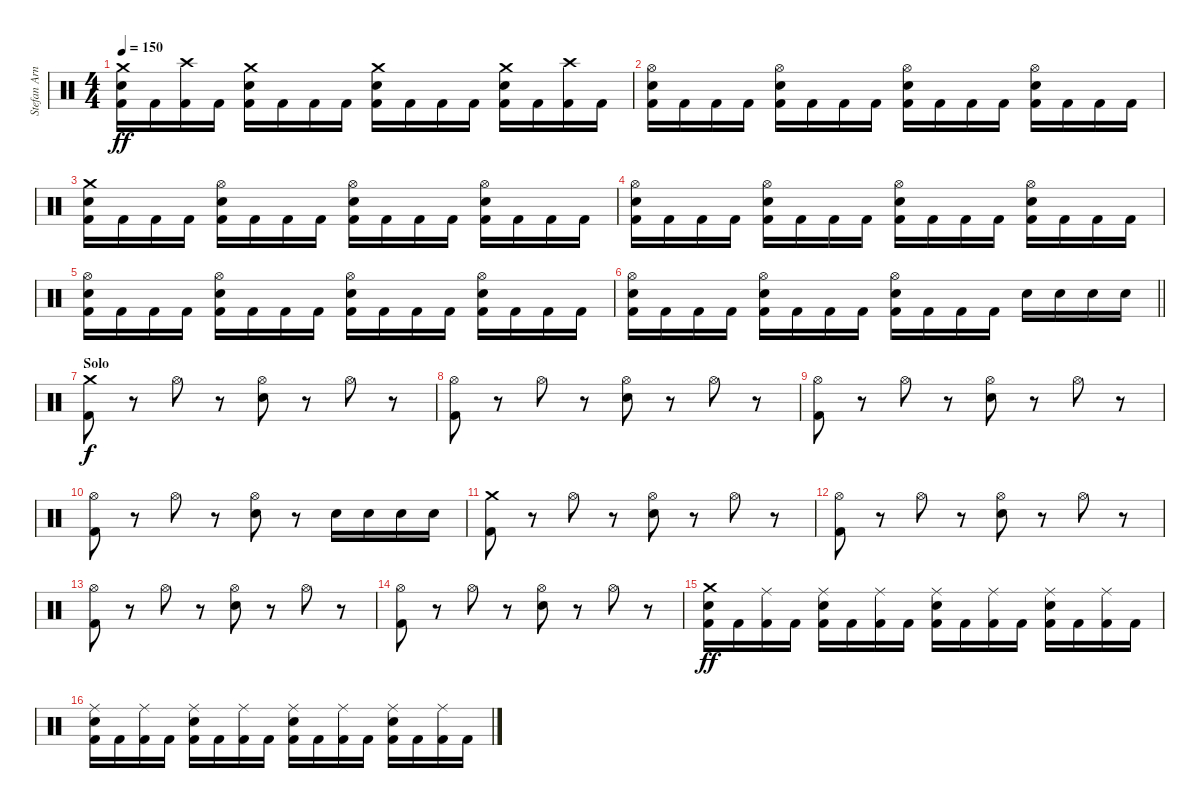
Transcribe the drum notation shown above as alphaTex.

\track ("Stefan Arnold" "Stefan Arn") {instrument percussion}
\staff {score}
\articulation defaults
\ts (4 4)
\tempo 150
\clef neutral
\ks c
("Crash medium (hit)" "Electric Snare (hit)" "Kick (hit) 2").16{dy ff} "Kick (hit) 2".16 ("Crash high (hit)" "Kick (hit) 2").16 "Kick (hit) 2".16 ("Crash medium (hit)" "Electric Snare (hit)" "Kick (hit) 2").16 "Kick (hit) 2".16 "Kick (hit) 2".16 "Kick (hit) 2".16 ("Crash medium (hit)" "Electric Snare (hit)" "Kick (hit) 2").16 "Kick (hit) 2".16 "Kick (hit) 2".16 "Kick (hit) 2".16 ("Crash medium (hit)" "Electric Snare (hit)" "Kick (hit) 2").16 "Kick (hit) 2".16 ("Crash high (hit)" "Kick (hit) 2").16 "Kick (hit) 2".16 |
("Hi-Hat (open)" "Electric Snare (hit)" "Kick (hit) 2").16 "Kick (hit) 2".16 "Kick (hit) 2".16 "Kick (hit) 2".16 ("Hi-Hat (open)" "Electric Snare (hit)" "Kick (hit) 2").16 "Kick (hit) 2".16 "Kick (hit) 2".16 "Kick (hit) 2".16 ("Hi-Hat (open)" "Electric Snare (hit)" "Kick (hit) 2").16 "Kick (hit) 2".16 "Kick (hit) 2".16 "Kick (hit) 2".16 ("Hi-Hat (open)" "Electric Snare (hit)" "Kick (hit) 2").16 "Kick (hit) 2".16 "Kick (hit) 2".16 "Kick (hit) 2".16 |
("Crash medium (hit)" "Electric Snare (hit)" "Kick (hit) 2").16 "Kick (hit) 2".16 "Kick (hit) 2".16 "Kick (hit) 2".16 ("Hi-Hat (open)" "Electric Snare (hit)" "Kick (hit) 2").16 "Kick (hit) 2".16 "Kick (hit) 2".16 "Kick (hit) 2".16 ("Hi-Hat (open)" "Electric Snare (hit)" "Kick (hit) 2").16 "Kick (hit) 2".16 "Kick (hit) 2".16 "Kick (hit) 2".16 ("Hi-Hat (open)" "Electric Snare (hit)" "Kick (hit) 2").16 "Kick (hit) 2".16 "Kick (hit) 2".16 "Kick (hit) 2".16 |
("Hi-Hat (open)" "Electric Snare (hit)" "Kick (hit) 2").16 "Kick (hit) 2".16 "Kick (hit) 2".16 "Kick (hit) 2".16 ("Hi-Hat (open)" "Electric Snare (hit)" "Kick (hit) 2").16 "Kick (hit) 2".16 "Kick (hit) 2".16 "Kick (hit) 2".16 ("Hi-Hat (open)" "Electric Snare (hit)" "Kick (hit) 2").16 "Kick (hit) 2".16 "Kick (hit) 2".16 "Kick (hit) 2".16 ("Hi-Hat (open)" "Electric Snare (hit)" "Kick (hit) 2").16 "Kick (hit) 2".16 "Kick (hit) 2".16 "Kick (hit) 2".16 |
("Hi-Hat (open)" "Electric Snare (hit)" "Kick (hit) 2").16 "Kick (hit) 2".16 "Kick (hit) 2".16 "Kick (hit) 2".16 ("Hi-Hat (open)" "Electric Snare (hit)" "Kick (hit) 2").16 "Kick (hit) 2".16 "Kick (hit) 2".16 "Kick (hit) 2".16 ("Hi-Hat (open)" "Electric Snare (hit)" "Kick (hit) 2").16 "Kick (hit) 2".16 "Kick (hit) 2".16 "Kick (hit) 2".16 ("Hi-Hat (open)" "Electric Snare (hit)" "Kick (hit) 2").16 "Kick (hit) 2".16 "Kick (hit) 2".16 "Kick (hit) 2".16 |
\barLineRight lightlight
("Hi-Hat (open)" "Electric Snare (hit)" "Kick (hit) 2").16 "Kick (hit) 2".16 "Kick (hit) 2".16 "Kick (hit) 2".16 ("Hi-Hat (open)" "Electric Snare (hit)" "Kick (hit) 2").16 "Kick (hit) 2".16 "Kick (hit) 2".16 "Kick (hit) 2".16 ("Hi-Hat (open)" "Electric Snare (hit)" "Kick (hit) 2").16 "Kick (hit) 2".16 "Kick (hit) 2".16 "Kick (hit) 2".16 "Electric Snare (hit)".16 "Electric Snare (hit)".16 "Electric Snare (hit)".16 "Electric Snare (hit)".16 |
\section ("" "Solo")
("Crash medium (hit)" "Kick (hit) 2").8{dy f} r.8 "Hi-Hat (open)".8 r.8 ("Hi-Hat (open)" "Electric Snare (hit)").8 r.8 "Hi-Hat (open)".8 r.8 |
("Hi-Hat (open)" "Kick (hit) 2").8 r.8 "Hi-Hat (open)".8 r.8 ("Hi-Hat (open)" "Electric Snare (hit)").8 r.8 "Hi-Hat (open)".8 r.8 |
("Hi-Hat (open)" "Kick (hit) 2").8 r.8 "Hi-Hat (open)".8 r.8 ("Hi-Hat (open)" "Electric Snare (hit)").8 r.8 "Hi-Hat (open)".8 r.8 |
("Hi-Hat (open)" "Kick (hit) 2").8 r.8 "Hi-Hat (open)".8 r.8 ("Hi-Hat (open)" "Electric Snare (hit)").8 r.8 "Electric Snare (hit)".16 "Electric Snare (hit)".16 "Electric Snare (hit)".16 "Electric Snare (hit)".16 |
("Crash medium (hit)" "Kick (hit) 2").8 r.8 "Hi-Hat (open)".8 r.8 ("Hi-Hat (open)" "Electric Snare (hit)").8 r.8 "Hi-Hat (open)".8 r.8 |
("Hi-Hat (open)" "Kick (hit) 2").8 r.8 "Hi-Hat (open)".8 r.8 ("Hi-Hat (open)" "Electric Snare (hit)").8 r.8 "Hi-Hat (open)".8 r.8 |
("Hi-Hat (open)" "Kick (hit) 2").8 r.8 "Hi-Hat (open)".8 r.8 ("Hi-Hat (open)" "Electric Snare (hit)").8 r.8 "Hi-Hat (open)".8 r.8 |
("Hi-Hat (open)" "Kick (hit) 2").8 r.8 "Hi-Hat (open)".8 r.8 ("Hi-Hat (open)" "Electric Snare (hit)").8 r.8 "Hi-Hat (open)".8 r.8 |
("Crash medium (hit)" "Electric Snare (hit)" "Kick (hit) 2").16{dy ff} "Kick (hit) 2".16 ("Ride (middle)" "Kick (hit) 2").16 "Kick (hit) 2".16 ("Ride (middle)" "Electric Snare (hit)" "Kick (hit) 2").16 "Kick (hit) 2".16 ("Ride (middle)" "Kick (hit) 2").16 "Kick (hit) 2".16 ("Ride (middle)" "Electric Snare (hit)" "Kick (hit) 2").16 "Kick (hit) 2".16 ("Ride (middle)" "Kick (hit) 2").16 "Kick (hit) 2".16 ("Ride (middle)" "Electric Snare (hit)" "Kick (hit) 2").16 "Kick (hit) 2".16 ("Ride (middle)" "Kick (hit) 2").16 "Kick (hit) 2".16 |
("Ride (middle)" "Electric Snare (hit)" "Kick (hit) 2").16 "Kick (hit) 2".16 ("Ride (middle)" "Kick (hit) 2").16 "Kick (hit) 2".16 ("Ride (middle)" "Electric Snare (hit)" "Kick (hit) 2").16 "Kick (hit) 2".16 ("Ride (middle)" "Kick (hit) 2").16 "Kick (hit) 2".16 ("Ride (middle)" "Electric Snare (hit)" "Kick (hit) 2").16 "Kick (hit) 2".16 ("Ride (middle)" "Kick (hit) 2").16 "Kick (hit) 2".16 ("Ride (middle)" "Electric Snare (hit)" "Kick (hit) 2").16 "Kick (hit) 2".16 ("Ride (middle)" "Kick (hit) 2").16 "Kick (hit) 2".16
